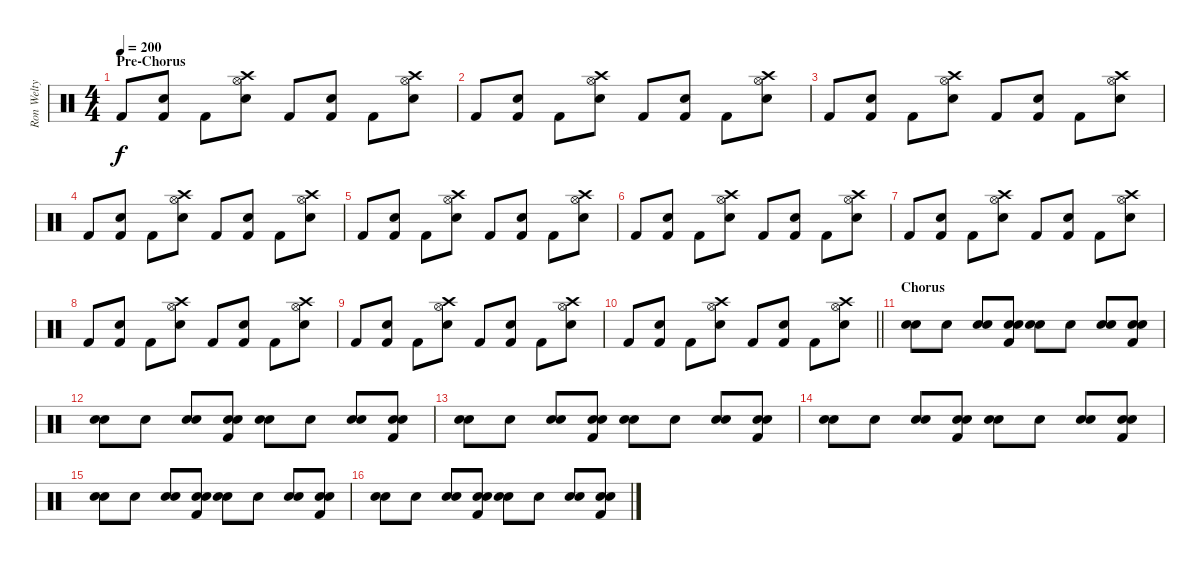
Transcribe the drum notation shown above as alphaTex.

\track ("Ron Welty" "Ron Welty") {instrument percussion}
\staff {score}
\articulation defaults
\ts (4 4)
\section ("" "Pre-Chorus")
\tempo 200
\clef neutral
\ks c "Kick (hit) 2".8{dy f}
("Kick (hit) 2" "Electric Snare (hit)").8 "Kick (hit) 2".8 ("Snare (hit) 2" "Hi-Hat (open)" "Crash high (hit)").8 "Kick (hit) 2".8 ("Kick (hit) 2" "Electric Snare (hit)").8 "Kick (hit) 2".8 ("Snare (hit) 2" "Hi-Hat (open)" "Crash high (hit)").8 |
"Kick (hit) 2".8 ("Kick (hit) 2" "Electric Snare (hit)").8 "Kick (hit) 2".8 ("Snare (hit) 2" "Hi-Hat (open)" "Crash high (hit)").8 "Kick (hit) 2".8 ("Kick (hit) 2" "Electric Snare (hit)").8 "Kick (hit) 2".8 ("Snare (hit) 2" "Hi-Hat (open)" "Crash high (hit)").8 |
"Kick (hit) 2".8 ("Kick (hit) 2" "Electric Snare (hit)").8 "Kick (hit) 2".8 ("Snare (hit) 2" "Hi-Hat (open)" "Crash high (hit)").8 "Kick (hit) 2".8 ("Kick (hit) 2" "Electric Snare (hit)").8 "Kick (hit) 2".8 ("Snare (hit) 2" "Hi-Hat (open)" "Crash high (hit)").8 |
"Kick (hit) 2".8 ("Kick (hit) 2" "Electric Snare (hit)").8 "Kick (hit) 2".8 ("Snare (hit) 2" "Hi-Hat (open)" "Crash high (hit)").8 "Kick (hit) 2".8 ("Kick (hit) 2" "Electric Snare (hit)").8 "Kick (hit) 2".8 ("Snare (hit) 2" "Hi-Hat (open)" "Crash high (hit)").8 |
"Kick (hit) 2".8 ("Kick (hit) 2" "Electric Snare (hit)").8 "Kick (hit) 2".8 ("Snare (hit) 2" "Hi-Hat (open)" "Crash high (hit)").8 "Kick (hit) 2".8 ("Kick (hit) 2" "Electric Snare (hit)").8 "Kick (hit) 2".8 ("Snare (hit) 2" "Hi-Hat (open)" "Crash high (hit)").8 |
"Kick (hit) 2".8 ("Kick (hit) 2" "Electric Snare (hit)").8 "Kick (hit) 2".8 ("Snare (hit) 2" "Hi-Hat (open)" "Crash high (hit)").8 "Kick (hit) 2".8 ("Kick (hit) 2" "Electric Snare (hit)").8 "Kick (hit) 2".8 ("Snare (hit) 2" "Hi-Hat (open)" "Crash high (hit)").8 |
"Kick (hit) 2".8 ("Kick (hit) 2" "Electric Snare (hit)").8 "Kick (hit) 2".8 ("Snare (hit) 2" "Hi-Hat (open)" "Crash high (hit)").8 "Kick (hit) 2".8 ("Kick (hit) 2" "Electric Snare (hit)").8 "Kick (hit) 2".8 ("Snare (hit) 2" "Hi-Hat (open)" "Crash high (hit)").8 |
"Kick (hit) 2".8 ("Kick (hit) 2" "Electric Snare (hit)").8 "Kick (hit) 2".8 ("Snare (hit) 2" "Hi-Hat (open)" "Crash high (hit)").8 "Kick (hit) 2".8 ("Kick (hit) 2" "Electric Snare (hit)").8 "Kick (hit) 2".8 ("Snare (hit) 2" "Hi-Hat (open)" "Crash high (hit)").8 |
"Kick (hit) 2".8 ("Kick (hit) 2" "Electric Snare (hit)").8 "Kick (hit) 2".8 ("Snare (hit) 2" "Hi-Hat (open)" "Crash high (hit)").8 "Kick (hit) 2".8 ("Kick (hit) 2" "Electric Snare (hit)").8 "Kick (hit) 2".8 ("Snare (hit) 2" "Hi-Hat (open)" "Crash high (hit)").8 |
\barLineRight lightlight "Kick (hit) 2".8
("Kick (hit) 2" "Electric Snare (hit)").8 "Kick (hit) 2".8 ("Snare (hit) 2" "Hi-Hat (open)" "Crash high (hit)").8 "Kick (hit) 2".8 ("Kick (hit) 2" "Electric Snare (hit)").8 "Kick (hit) 2".8 ("Snare (hit) 2" "Hi-Hat (open)" "Crash high (hit)").8 |
\section ("" "Chorus")
("Electric Snare (hit)" "Snare (hit) 2").8 "Electric Snare (hit)".8 ("Electric Snare (hit)" "Snare (hit) 2").8 ("Kick (hit) 2" "Snare (hit) 2" "Electric Snare (hit)").8 ("Electric Snare (hit)" "Snare (hit) 2").8 "Electric Snare (hit)".8 ("Electric Snare (hit)" "Snare (hit) 2").8 ("Kick (hit) 2" "Snare (hit) 2" "Electric Snare (hit)").8 |
("Electric Snare (hit)" "Snare (hit) 2").8 "Electric Snare (hit)".8 ("Electric Snare (hit)" "Snare (hit) 2").8 ("Kick (hit) 2" "Snare (hit) 2" "Electric Snare (hit)").8 ("Electric Snare (hit)" "Snare (hit) 2").8 "Electric Snare (hit)".8 ("Electric Snare (hit)" "Snare (hit) 2").8 ("Kick (hit) 2" "Snare (hit) 2" "Electric Snare (hit)").8 |
("Electric Snare (hit)" "Snare (hit) 2").8 "Electric Snare (hit)".8 ("Electric Snare (hit)" "Snare (hit) 2").8 ("Kick (hit) 2" "Snare (hit) 2" "Electric Snare (hit)").8 ("Electric Snare (hit)" "Snare (hit) 2").8 "Electric Snare (hit)".8 ("Electric Snare (hit)" "Snare (hit) 2").8 ("Kick (hit) 2" "Snare (hit) 2" "Electric Snare (hit)").8 |
("Electric Snare (hit)" "Snare (hit) 2").8 "Electric Snare (hit)".8 ("Electric Snare (hit)" "Snare (hit) 2").8 ("Kick (hit) 2" "Snare (hit) 2" "Electric Snare (hit)").8 ("Electric Snare (hit)" "Snare (hit) 2").8 "Electric Snare (hit)".8 ("Electric Snare (hit)" "Snare (hit) 2").8 ("Kick (hit) 2" "Snare (hit) 2" "Electric Snare (hit)").8 |
("Electric Snare (hit)" "Snare (hit) 2").8 "Electric Snare (hit)".8 ("Electric Snare (hit)" "Snare (hit) 2").8 ("Kick (hit) 2" "Snare (hit) 2" "Electric Snare (hit)").8 ("Electric Snare (hit)" "Snare (hit) 2").8 "Electric Snare (hit)".8 ("Electric Snare (hit)" "Snare (hit) 2").8 ("Kick (hit) 2" "Snare (hit) 2" "Electric Snare (hit)").8 |
("Electric Snare (hit)" "Snare (hit) 2").8 "Electric Snare (hit)".8 ("Electric Snare (hit)" "Snare (hit) 2").8 ("Kick (hit) 2" "Snare (hit) 2" "Electric Snare (hit)").8 ("Electric Snare (hit)" "Snare (hit) 2").8 "Electric Snare (hit)".8 ("Electric Snare (hit)" "Snare (hit) 2").8 ("Kick (hit) 2" "Snare (hit) 2" "Electric Snare (hit)").8
